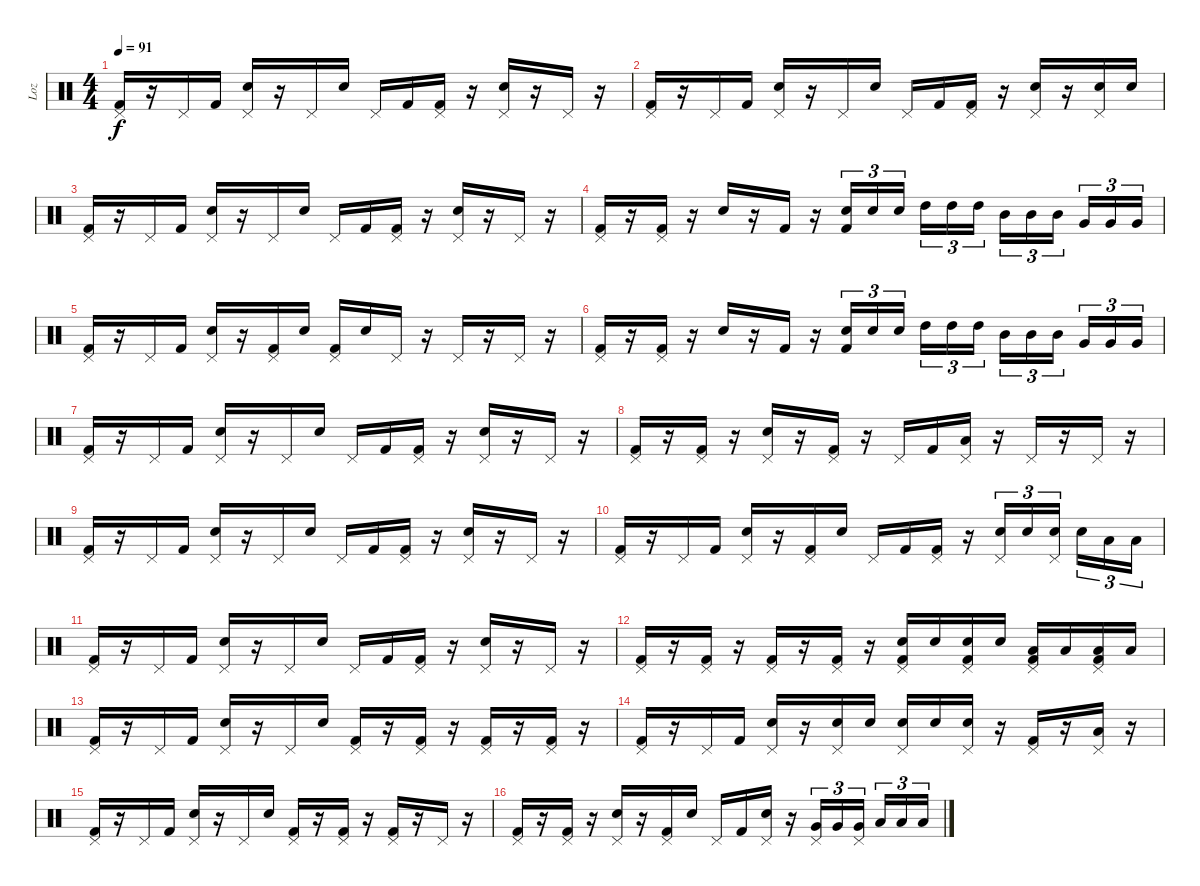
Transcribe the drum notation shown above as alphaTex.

\track ("Loz" "Loz") {instrument percussion}
\staff {score}
\articulation defaults
\ts (4 4)
\tempo 91
\clef neutral
\ks c
("Pedal Hi-Hat (hit)" "Kick (hit) 2").16{dy f} r.16 "Pedal Hi-Hat (hit)".16 "Kick (hit) 2".16 ("Pedal Hi-Hat (hit)" "Electric Snare (hit)").16 r.16 "Pedal Hi-Hat (hit)".16 "Electric Snare (hit)".16 "Pedal Hi-Hat (hit)".16 "Kick (hit) 2".16 ("Pedal Hi-Hat (hit)" "Kick (hit) 2").16 r.16 ("Pedal Hi-Hat (hit)" "Electric Snare (hit)").16 r.16 "Pedal Hi-Hat (hit)".16 r.16 |
("Pedal Hi-Hat (hit)" "Kick (hit) 2").16 r.16 "Pedal Hi-Hat (hit)".16 "Kick (hit) 2".16 ("Pedal Hi-Hat (hit)" "Electric Snare (hit)").16 r.16 "Pedal Hi-Hat (hit)".16 "Electric Snare (hit)".16 "Pedal Hi-Hat (hit)".16 "Kick (hit) 2".16 ("Pedal Hi-Hat (hit)" "Kick (hit) 2").16 r.16 ("Pedal Hi-Hat (hit)" "Electric Snare (hit)").16 r.16 ("Pedal Hi-Hat (hit)" "Electric Snare (hit)").16 "Electric Snare (hit)".16 |
("Pedal Hi-Hat (hit)" "Kick (hit) 2").16 r.16 "Pedal Hi-Hat (hit)".16 "Kick (hit) 2".16 ("Pedal Hi-Hat (hit)" "Electric Snare (hit)").16 r.16 "Pedal Hi-Hat (hit)".16 "Electric Snare (hit)".16 "Pedal Hi-Hat (hit)".16 "Kick (hit) 2".16 ("Pedal Hi-Hat (hit)" "Kick (hit) 2").16 r.16 ("Pedal Hi-Hat (hit)" "Electric Snare (hit)").16 r.16 "Pedal Hi-Hat (hit)".16 r.16 |
("Pedal Hi-Hat (hit)" "Kick (hit) 2").16 r.16 ("Pedal Hi-Hat (hit)" "Kick (hit) 2").16 r.16 "Electric Snare (hit)".16 r.16 "Kick (hit) 2".16 r.16 ("Electric Snare (hit)" "Kick (hit) 2").16{tu (3 2)} "Electric Snare (hit)".16{tu (3 2)} "Electric Snare (hit)".16{tu (3 2)} "High Tom (hit)".16{tu (3 2)} "High Tom (hit)".16{tu (3 2)} "High Tom (hit)".16{tu (3 2)} "Mid Tom (hit)".16{tu (3 2)} "Mid Tom (hit)".16{tu (3 2)} "Mid Tom (hit)".16{tu (3 2)} "Very Low Tom (hit)".16{tu (3 2)} "Very Low Tom (hit)".16{tu (3 2)} "Very Low Tom (hit)".16{tu (3 2)} |
("Pedal Hi-Hat (hit)" "Kick (hit) 2").16 r.16 "Pedal Hi-Hat (hit)".16 "Kick (hit) 2".16 ("Pedal Hi-Hat (hit)" "Electric Snare (hit)").16 r.16 ("Pedal Hi-Hat (hit)" "Kick (hit) 2").16 "Electric Snare (hit)".16 ("Pedal Hi-Hat (hit)" "Kick (hit) 2").16 "Electric Snare (hit)".16 "Pedal Hi-Hat (hit)".16 r.16 "Pedal Hi-Hat (hit)".16 r.16 "Pedal Hi-Hat (hit)".16 r.16 |
("Pedal Hi-Hat (hit)" "Kick (hit) 2").16 r.16 ("Pedal Hi-Hat (hit)" "Kick (hit) 2").16 r.16 "Electric Snare (hit)".16 r.16 "Kick (hit) 2".16 r.16 ("Electric Snare (hit)" "Kick (hit) 2").16{tu (3 2)} "Electric Snare (hit)".16{tu (3 2)} "Electric Snare (hit)".16{tu (3 2)} "High Tom (hit)".16{tu (3 2)} "High Tom (hit)".16{tu (3 2)} "High Tom (hit)".16{tu (3 2)} "Mid Tom (hit)".16{tu (3 2)} "Mid Tom (hit)".16{tu (3 2)} "Mid Tom (hit)".16{tu (3 2)} "Very Low Tom (hit)".16{tu (3 2)} "Very Low Tom (hit)".16{tu (3 2)} "Very Low Tom (hit)".16{tu (3 2)} |
("Pedal Hi-Hat (hit)" "Kick (hit) 2").16 r.16 "Pedal Hi-Hat (hit)".16 "Kick (hit) 2".16 ("Pedal Hi-Hat (hit)" "Electric Snare (hit)").16 r.16 "Pedal Hi-Hat (hit)".16 "Electric Snare (hit)".16 "Pedal Hi-Hat (hit)".16 "Kick (hit) 2".16 ("Pedal Hi-Hat (hit)" "Kick (hit) 2").16 r.16 ("Pedal Hi-Hat (hit)" "Electric Snare (hit)").16 r.16 "Pedal Hi-Hat (hit)".16 r.16 |
("Pedal Hi-Hat (hit)" "Kick (hit) 2").16 r.16 ("Pedal Hi-Hat (hit)" "Kick (hit) 2").16 r.16 ("Pedal Hi-Hat (hit)" "Electric Snare (hit)").16 r.16 ("Pedal Hi-Hat (hit)" "Kick (hit) 2").16 r.16 "Pedal Hi-Hat (hit)".16 "Kick (hit) 2".16 ("Pedal Hi-Hat (hit)" "Low Tom (hit)").16 r.16 "Pedal Hi-Hat (hit)".16 r.16 "Pedal Hi-Hat (hit)".16 r.16 |
("Pedal Hi-Hat (hit)" "Kick (hit) 2").16 r.16 "Pedal Hi-Hat (hit)".16 "Kick (hit) 2".16 ("Pedal Hi-Hat (hit)" "Electric Snare (hit)").16 r.16 "Pedal Hi-Hat (hit)".16 "Electric Snare (hit)".16 "Pedal Hi-Hat (hit)".16 "Kick (hit) 2".16 ("Pedal Hi-Hat (hit)" "Kick (hit) 2").16 r.16 ("Pedal Hi-Hat (hit)" "Electric Snare (hit)").16 r.16 "Pedal Hi-Hat (hit)".16 r.16 |
("Pedal Hi-Hat (hit)" "Kick (hit) 2").16 r.16 "Pedal Hi-Hat (hit)".16 "Kick (hit) 2".16 ("Pedal Hi-Hat (hit)" "Electric Snare (hit)").16 r.16 ("Pedal Hi-Hat (hit)" "Kick (hit) 2").16 "Electric Snare (hit)".16 "Pedal Hi-Hat (hit)".16 "Kick (hit) 2".16 ("Pedal Hi-Hat (hit)" "Kick (hit) 2").16 r.16 ("Pedal Hi-Hat (hit)" "Electric Snare (hit)").16{tu (3 2)} "Electric Snare (hit)".16{tu (3 2)} ("Pedal Hi-Hat (hit)" "Electric Snare (hit)").16{tu (3 2)} "Electric Snare (hit)".16{tu (3 2)} "Low Tom (hit)".16{tu (3 2)} "Low Tom (hit)".16{tu (3 2)} |
("Pedal Hi-Hat (hit)" "Kick (hit) 2").16 r.16 "Pedal Hi-Hat (hit)".16 "Kick (hit) 2".16 ("Pedal Hi-Hat (hit)" "Electric Snare (hit)").16 r.16 "Pedal Hi-Hat (hit)".16 "Electric Snare (hit)".16 "Pedal Hi-Hat (hit)".16 "Kick (hit) 2".16 ("Pedal Hi-Hat (hit)" "Kick (hit) 2").16 r.16 ("Pedal Hi-Hat (hit)" "Electric Snare (hit)").16 r.16 "Pedal Hi-Hat (hit)".16 r.16 |
("Pedal Hi-Hat (hit)" "Kick (hit) 2").16 r.16 ("Pedal Hi-Hat (hit)" "Kick (hit) 2").16 r.16 ("Pedal Hi-Hat (hit)" "Kick (hit) 2").16 r.16 ("Pedal Hi-Hat (hit)" "Kick (hit) 2").16 r.16 ("Pedal Hi-Hat (hit)" "Electric Snare (hit)" "Kick (hit) 2").16 "Electric Snare (hit)".16 ("Pedal Hi-Hat (hit)" "Electric Snare (hit)" "Kick (hit) 2").16 "Electric Snare (hit)".16 ("Pedal Hi-Hat (hit)" "Low Tom (hit)" "Kick (hit) 2").16 "Low Tom (hit)".16 ("Pedal Hi-Hat (hit)" "Low Tom (hit)" "Kick (hit) 2").16 "Low Tom (hit)".16 |
("Pedal Hi-Hat (hit)" "Kick (hit) 2").16 r.16 "Pedal Hi-Hat (hit)".16 "Kick (hit) 2".16 ("Pedal Hi-Hat (hit)" "Electric Snare (hit)").16 r.16 "Pedal Hi-Hat (hit)".16 "Electric Snare (hit)".16 ("Pedal Hi-Hat (hit)" "Kick (hit) 2").16 r.16 ("Pedal Hi-Hat (hit)" "Kick (hit) 2").16 r.16 ("Pedal Hi-Hat (hit)" "Kick (hit) 2").16 r.16 ("Pedal Hi-Hat (hit)" "Kick (hit) 2").16 r.16 |
("Pedal Hi-Hat (hit)" "Kick (hit) 2").16 r.16 "Pedal Hi-Hat (hit)".16 "Kick (hit) 2".16 ("Pedal Hi-Hat (hit)" "Electric Snare (hit)").16 r.16 ("Pedal Hi-Hat (hit)" "Electric Snare (hit)").16 "Electric Snare (hit)".16 ("Pedal Hi-Hat (hit)" "Electric Snare (hit)").16 "Electric Snare (hit)".16 ("Pedal Hi-Hat (hit)" "Electric Snare (hit)").16 r.16 ("Pedal Hi-Hat (hit)" "Kick (hit) 2").16 r.16 ("Pedal Hi-Hat (hit)" "Low Floor Tom (hit)").16 r.16 |
("Pedal Hi-Hat (hit)" "Kick (hit) 2").16 r.16 "Pedal Hi-Hat (hit)".16 "Kick (hit) 2".16 ("Pedal Hi-Hat (hit)" "Electric Snare (hit)").16 r.16 "Pedal Hi-Hat (hit)".16 "Electric Snare (hit)".16 ("Pedal Hi-Hat (hit)" "Kick (hit) 2").16 r.16 ("Pedal Hi-Hat (hit)" "Kick (hit) 2").16 r.16 ("Pedal Hi-Hat (hit)" "Kick (hit) 2").16 r.16 "Pedal Hi-Hat (hit)".16 r.16 |
("Pedal Hi-Hat (hit)" "Kick (hit) 2").16 r.16 ("Pedal Hi-Hat (hit)" "Kick (hit) 2").16 r.16 ("Pedal Hi-Hat (hit)" "Electric Snare (hit)").16 r.16 ("Pedal Hi-Hat (hit)" "Kick (hit) 2").16 "Electric Snare (hit)".16 "Pedal Hi-Hat (hit)".16 "Kick (hit) 2".16 ("Pedal Hi-Hat (hit)" "Electric Snare (hit)").16 r.16 ("Pedal Hi-Hat (hit)" "Very Low Tom (hit)").16{tu (3 2)} "Very Low Tom (hit)".16{tu (3 2)} ("Pedal Hi-Hat (hit)" "Very Low Tom (hit)").16{tu (3 2)} "Low Floor Tom (hit)".16{tu (3 2)} "Low Floor Tom (hit)".16{tu (3 2)} "Low Floor Tom (hit)".16{tu (3 2)}
